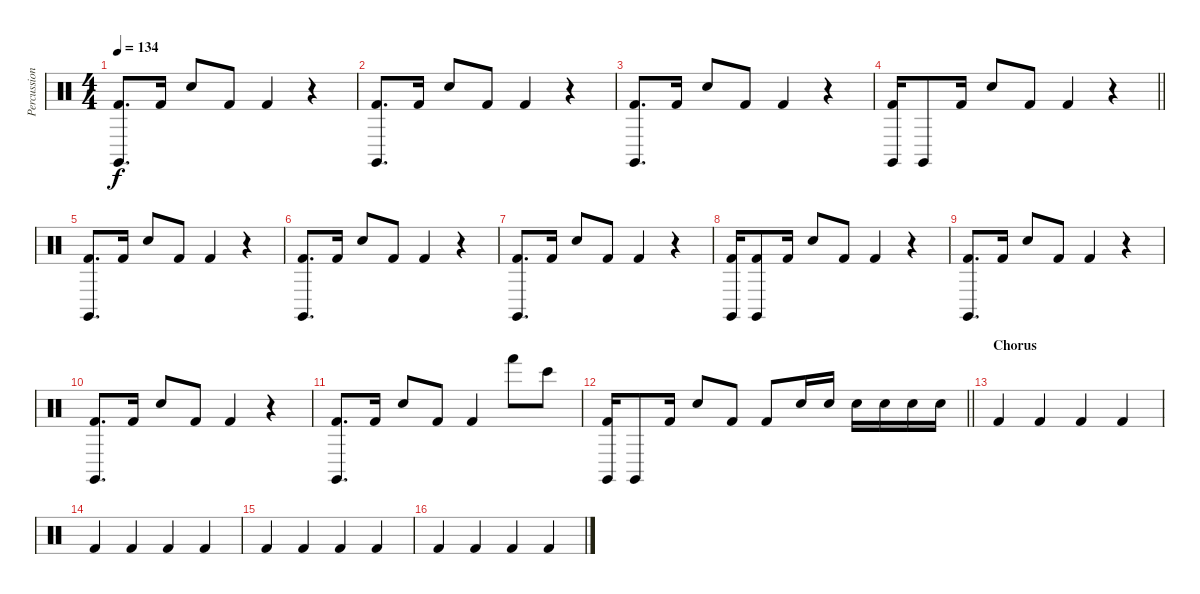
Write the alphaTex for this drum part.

\track ("Percussion" "Percussion") {instrument percussion}
\staff {score}
\articulation defaults
\ts (4 4)
\tempo 134
\clef neutral
\ks c
("Claves (hit)" "Kick (hit) 2").8{d dy f} "Kick (hit) 2".16 "Snare (hit) 2".8 "Kick (hit) 2".8 "Kick (hit) 2".4 r.4 |
("Claves (hit)" "Kick (hit) 2").8{d} "Kick (hit) 2".16 "Snare (hit) 2".8 "Kick (hit) 2".8 "Kick (hit) 2".4 r.4 |
("Claves (hit)" "Kick (hit) 2").8{d} "Kick (hit) 2".16 "Snare (hit) 2".8 "Kick (hit) 2".8 "Kick (hit) 2".4 r.4 |
\barLineRight lightlight
("Claves (hit)" "Kick (hit) 2").16 "Claves (hit)".8 "Kick (hit) 2".16 "Snare (hit) 2".8 "Kick (hit) 2".8 "Kick (hit) 2".4 r.4 |
("Claves (hit)" "Kick (hit) 2").8{d} "Kick (hit) 2".16 "Snare (hit) 2".8 "Kick (hit) 2".8 "Kick (hit) 2".4 r.4 |
("Claves (hit)" "Kick (hit) 2").8{d} "Kick (hit) 2".16 "Snare (hit) 2".8 "Kick (hit) 2".8 "Kick (hit) 2".4 r.4 |
("Claves (hit)" "Kick (hit) 2").8{d} "Kick (hit) 2".16 "Snare (hit) 2".8 "Kick (hit) 2".8 "Kick (hit) 2".4 r.4 |
("Claves (hit)" "Kick (hit) 2").16 ("Claves (hit)" "Kick (hit) 2").8 "Kick (hit) 2".16 "Snare (hit) 2".8 "Kick (hit) 2".8 "Kick (hit) 2".4 r.4 |
("Claves (hit)" "Kick (hit) 2").8{d} "Kick (hit) 2".16 "Snare (hit) 2".8 "Kick (hit) 2".8 "Kick (hit) 2".4 r.4 |
("Claves (hit)" "Kick (hit) 2").8{d} "Kick (hit) 2".16 "Snare (hit) 2".8 "Kick (hit) 2".8 "Kick (hit) 2".4 r.4 |
("Claves (hit)" "Kick (hit) 2").8{d} "Kick (hit) 2".16 "Snare (hit) 2".8 "Kick (hit) 2".8 "Kick (hit) 2".4 "Hand (hit)".8 "Bongo High (hit)".8 |
\barLineRight lightlight
("Claves (hit)" "Kick (hit) 2").16 "Claves (hit)".8 "Kick (hit) 2".16 "Snare (hit) 2".8 "Kick (hit) 2".8 "Kick (hit) 2".8 "Snare (hit) 2".16 "Snare (hit) 2".16 "Snare (hit) 2".16 "Snare (hit) 2".16 "Snare (hit) 2".16 "Snare (hit) 2".16 |
\section ("" "Chorus")
"Kick (hit) 2".4 "Kick (hit) 2".4 "Kick (hit) 2".4 "Kick (hit) 2".4 |
"Kick (hit) 2".4 "Kick (hit) 2".4 "Kick (hit) 2".4 "Kick (hit) 2".4 |
"Kick (hit) 2".4 "Kick (hit) 2".4 "Kick (hit) 2".4 "Kick (hit) 2".4 |
"Kick (hit) 2".4 "Kick (hit) 2".4 "Kick (hit) 2".4 "Kick (hit) 2".4
